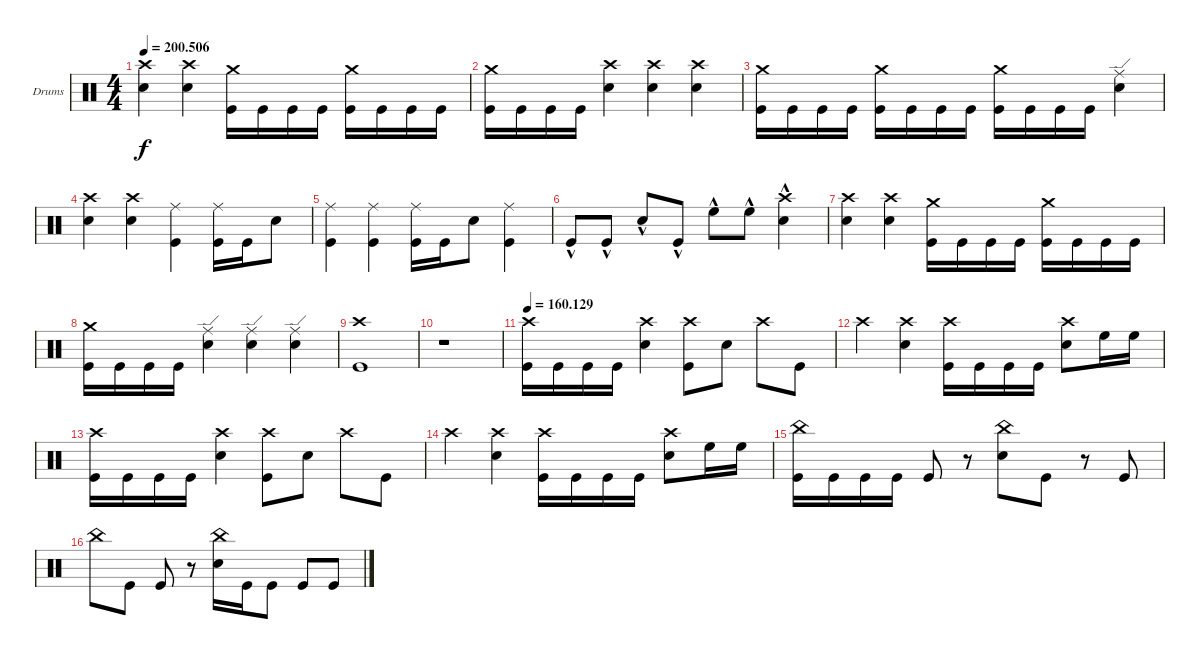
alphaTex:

\bracketExtendMode groupsimilarinstruments
\firstSystemTrackNameOrientation horizontal
\otherSystemsTrackNameOrientation horizontal
\track ("Emile Bardou" "Drums") {instrument percussion}
\staff {score}
\articulation defaults
\ts (4 4)
\tempo
200.506
\accidentals auto
\clef neutral
\ottava regular
\simile none
\ks c
("Crash high (hit)" "Snare (hit) 2").4{dy f} ("Crash high (hit)" "Snare (hit) 2").4 ("Crash medium (hit)" "Kick (hit)").16 "Kick (hit)".16 "Kick (hit)".16 "Kick (hit)".16 ("Crash medium (hit)" "Kick (hit)").16 "Kick (hit)".16 "Kick (hit)".16 "Kick (hit)".16 |
("Crash medium (hit)" "Kick (hit)").16 "Kick (hit)".16 "Kick (hit)".16 "Kick (hit)".16 ("Snare (hit) 2" "Crash high (hit)").4 ("Crash high (hit)" "Snare (hit) 2").4 ("Snare (hit) 2" "Crash high (hit)").4 |
("Crash medium (hit)" "Kick (hit)").16 "Kick (hit)".16 "Kick (hit)".16 "Kick (hit)".16 ("Crash medium (hit)" "Kick (hit)").16 "Kick (hit)".16 "Kick (hit)".16 "Kick (hit)".16 ("Crash medium (hit)" "Kick (hit)").16 "Kick (hit)".16 "Kick (hit)".16 "Kick (hit)".16 ("Ride (edge)" "Snare (hit) 2").4 |
("Snare (hit) 2" "Crash high (hit)").4 ("Snare (hit) 2" "Crash high (hit)").4 ("Kick (hit)" "Ride (middle)").4 ("Kick (hit)" "Ride (middle)").16 "Kick (hit)".16 "Snare (hit) 2".8 |
("Kick (hit)" "Ride (middle)").4 ("Ride (middle)" "Kick (hit)").4 ("Kick (hit)" "Ride (middle)").16 "Kick (hit)".16 "Snare (hit) 2".8 ("Kick (hit)" "Ride (middle)").4 |
"Kick (hit)"{hac}.8 "Kick (hit)"{hac}.8 "Snare (hit) 2"{hac}.8 "Kick (hit)"{hac}.8 "High Floor Tom (hit)"{hac}.8 "High Floor Tom (hit)"{hac}.8 ("Snare (hit) 2"{hac} "Crash high (hit)"{hac}).4 |
("Crash high (hit)" "Snare (hit) 2").4 ("Crash high (hit)" "Snare (hit) 2").4 ("Crash medium (hit)" "Kick (hit)").16 "Kick (hit)".16 "Kick (hit)".16 "Kick (hit)".16 ("Crash medium (hit)" "Kick (hit)").16 "Kick (hit)".16 "Kick (hit)".16 "Kick (hit)".16 |
("Crash medium (hit)" "Kick (hit)").16 "Kick (hit)".16 "Kick (hit)".16 "Kick (hit)".16 ("Ride (edge)" "Snare (hit) 2").4 ("Ride (edge)" "Snare (hit) 2").4 ("Ride (edge)" "Snare (hit) 2").4 |
("Kick (hit)" "Crash high (hit)").1 |
r.1 |
\tempo
160.129 ("Crash high (hit)" "Kick (hit)").16 "Kick (hit)".16 "Kick (hit)".16 "Kick (hit)".16 ("Crash high (hit)" "Snare (hit) 2").4 ("Crash high (hit)" "Kick (hit)").8 "Snare (hit) 2".8 "Crash high (hit)".8 "Kick (hit)".8 |
"Crash high (hit)".4 ("Crash high (hit)" "Snare (hit) 2").4 ("Crash high (hit)" "Kick (hit)").16 "Kick (hit)".16 "Kick (hit)".16 "Kick (hit)".16 ("Crash high (hit)" "Snare (hit) 2").8 "High Floor Tom (hit)".16 "High Floor Tom (hit)".16 |
("Crash high (hit)" "Kick (hit)").16 "Kick (hit)".16 "Kick (hit)".16 "Kick (hit)".16 ("Crash high (hit)" "Snare (hit) 2").4 ("Crash high (hit)" "Kick (hit)").8 "Snare (hit) 2".8 "Crash high (hit)".8 "Kick (hit)".8 |
"Crash high (hit)".4 ("Crash high (hit)" "Snare (hit) 2").4 ("Crash high (hit)" "Kick (hit)").16 "Kick (hit)".16 "Kick (hit)".16 "Kick (hit)".16 ("Crash high (hit)" "Snare (hit) 2").8 "High Floor Tom (hit)".16 "High Floor Tom (hit)".16 |
("China (hit)" "Kick (hit)").16 "Kick (hit)".16 "Kick (hit)".16 "Kick (hit)".16 "Kick (hit)".8 r.8 ("China (hit)" "Snare (hit) 2").8 "Kick (hit)".8 r.8 "Kick (hit)".8 |
"China (hit)".8 "Kick (hit)".8 "Kick (hit)".8 r.8 ("China (hit)" "Snare (hit) 2").16 "Kick (hit)".16 "Kick (hit)".8 "Kick (hit)".8 "Kick (hit)".8
